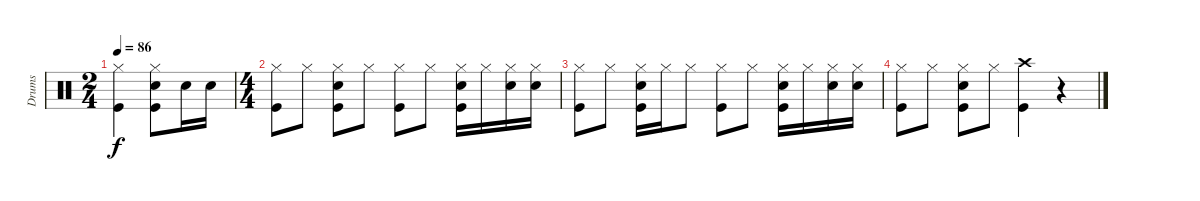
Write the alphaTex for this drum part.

\track ("Drums" "Drums") {instrument percussion}
\staff {score}
\articulation defaults
\ts (2 4)
\tempo 86
\clef neutral
\ks c
("Hi-Hat (closed)" "Kick (hit)").4{dy f} ("Kick (hit)" "Snare (hit) 2" "Hi-Hat (closed)").8 "Snare (hit) 2".16 "Snare (hit) 2".16 |
\ts (4 4)
("Hi-Hat (closed)" "Kick (hit)").8 "Hi-Hat (closed)".8 ("Hi-Hat (closed)" "Snare (hit) 2" "Kick (hit)").8 "Hi-Hat (closed)".8 ("Kick (hit)" "Hi-Hat (closed)").8 "Hi-Hat (closed)".8 ("Kick (hit)" "Hi-Hat (closed)" "Snare (hit) 2").16 "Hi-Hat (closed)".16 ("Hi-Hat (closed)" "Snare (hit) 2").16 ("Hi-Hat (closed)" "Snare (hit) 2").16 |
("Hi-Hat (closed)" "Kick (hit)").8 "Hi-Hat (closed)".8 ("Kick (hit)" "Hi-Hat (closed)" "Snare (hit) 2").16 "Hi-Hat (closed)".16 "Hi-Hat (closed)".8 ("Hi-Hat (closed)" "Kick (hit)").8 "Hi-Hat (closed)".8 ("Kick (hit)" "Hi-Hat (closed)" "Snare (hit) 2").16 "Hi-Hat (closed)".16 ("Hi-Hat (closed)" "Snare (hit) 2").16 ("Hi-Hat (closed)" "Snare (hit) 2").16 |
("Hi-Hat (closed)" "Kick (hit)").8 "Hi-Hat (closed)".8 ("Hi-Hat (closed)" "Kick (hit)" "Snare (hit) 2").8 "Hi-Hat (closed)".8 ("Crash high (hit)" "Kick (hit)").4 r.4
